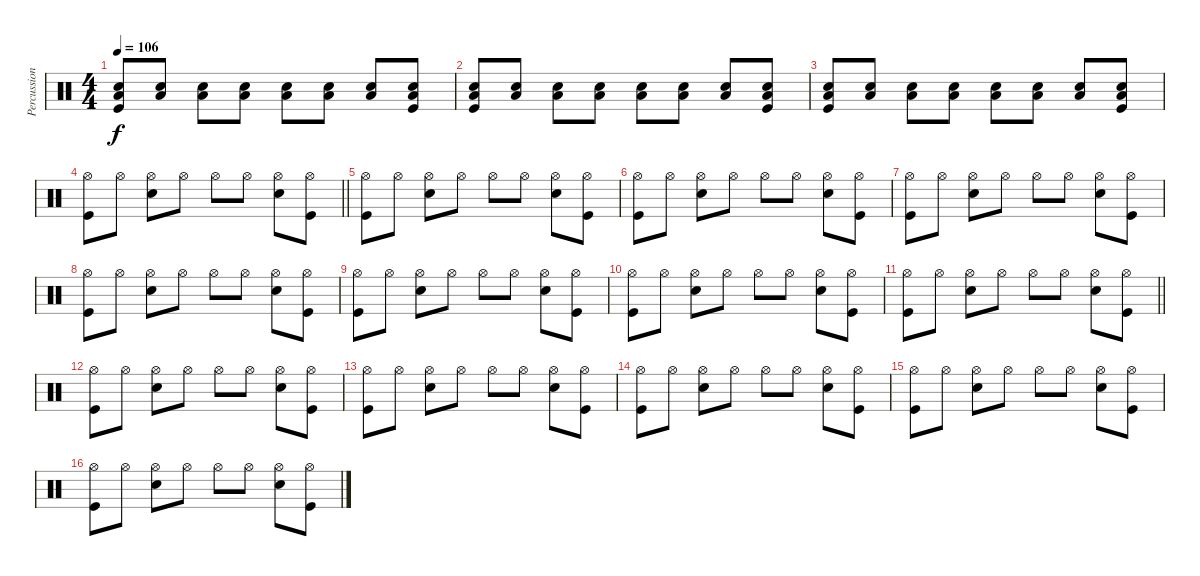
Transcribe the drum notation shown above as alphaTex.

\track ("Percussion" "Percussion") {instrument percussion}
\staff {score}
\articulation defaults
\ts (4 4)
\tempo 106
\clef neutral
\ks c
("Low Tom (hit)" "Snare (hit) 2" "Kick (hit)").8{dy f} ("Low Tom (hit)" "Snare (hit) 2").8 ("Low Tom (hit)" "Snare (hit) 2").8 ("Low Tom (hit)" "Snare (hit) 2").8 ("Low Tom (hit)" "Snare (hit) 2").8 ("Low Tom (hit)" "Snare (hit) 2").8 ("Low Tom (hit)" "Snare (hit) 2").8 ("Low Tom (hit)" "Snare (hit) 2" "Kick (hit)").8 |
("Low Tom (hit)" "Snare (hit) 2" "Kick (hit)").8 ("Low Tom (hit)" "Snare (hit) 2").8 ("Low Tom (hit)" "Snare (hit) 2").8 ("Low Tom (hit)" "Snare (hit) 2").8 ("Low Tom (hit)" "Snare (hit) 2").8 ("Low Tom (hit)" "Snare (hit) 2").8 ("Low Tom (hit)" "Snare (hit) 2").8 ("Low Tom (hit)" "Snare (hit) 2" "Kick (hit)").8 |
("Low Tom (hit)" "Snare (hit) 2" "Kick (hit)").8 ("Low Tom (hit)" "Snare (hit) 2").8 ("Low Tom (hit)" "Snare (hit) 2").8 ("Low Tom (hit)" "Snare (hit) 2").8 ("Low Tom (hit)" "Snare (hit) 2").8 ("Low Tom (hit)" "Snare (hit) 2").8 ("Low Tom (hit)" "Snare (hit) 2").8 ("Low Tom (hit)" "Snare (hit) 2" "Kick (hit)").8 |
\barLineRight lightlight
("Hi-Hat (open)" "Kick (hit)").8 "Hi-Hat (open)".8 ("Hi-Hat (open)" "Snare (hit) 2").8 "Hi-Hat (open)".8 "Hi-Hat (open)".8 "Hi-Hat (open)".8 ("Hi-Hat (open)" "Snare (hit) 2").8 ("Hi-Hat (open)" "Kick (hit)").8 |
("Hi-Hat (open)" "Kick (hit)").8 "Hi-Hat (open)".8 ("Hi-Hat (open)" "Snare (hit) 2").8 "Hi-Hat (open)".8 "Hi-Hat (open)".8 "Hi-Hat (open)".8 ("Hi-Hat (open)" "Snare (hit) 2").8 ("Hi-Hat (open)" "Kick (hit)").8 |
("Hi-Hat (open)" "Kick (hit)").8 "Hi-Hat (open)".8 ("Hi-Hat (open)" "Snare (hit) 2").8 "Hi-Hat (open)".8 "Hi-Hat (open)".8 "Hi-Hat (open)".8 ("Hi-Hat (open)" "Snare (hit) 2").8 ("Hi-Hat (open)" "Kick (hit)").8 |
("Hi-Hat (open)" "Kick (hit)").8 "Hi-Hat (open)".8 ("Hi-Hat (open)" "Snare (hit) 2").8 "Hi-Hat (open)".8 "Hi-Hat (open)".8 "Hi-Hat (open)".8 ("Hi-Hat (open)" "Snare (hit) 2").8 ("Hi-Hat (open)" "Kick (hit)").8 |
("Hi-Hat (open)" "Kick (hit)").8 "Hi-Hat (open)".8 ("Hi-Hat (open)" "Snare (hit) 2").8 "Hi-Hat (open)".8 "Hi-Hat (open)".8 "Hi-Hat (open)".8 ("Hi-Hat (open)" "Snare (hit) 2").8 ("Hi-Hat (open)" "Kick (hit)").8 |
("Hi-Hat (open)" "Kick (hit)").8 "Hi-Hat (open)".8 ("Hi-Hat (open)" "Snare (hit) 2").8 "Hi-Hat (open)".8 "Hi-Hat (open)".8 "Hi-Hat (open)".8 ("Hi-Hat (open)" "Snare (hit) 2").8 ("Hi-Hat (open)" "Kick (hit)").8 |
("Hi-Hat (open)" "Kick (hit)").8 "Hi-Hat (open)".8 ("Hi-Hat (open)" "Snare (hit) 2").8 "Hi-Hat (open)".8 "Hi-Hat (open)".8 "Hi-Hat (open)".8 ("Hi-Hat (open)" "Snare (hit) 2").8 ("Hi-Hat (open)" "Kick (hit)").8 |
\barLineRight lightlight
("Hi-Hat (open)" "Kick (hit)").8 "Hi-Hat (open)".8 ("Hi-Hat (open)" "Snare (hit) 2").8 "Hi-Hat (open)".8 "Hi-Hat (open)".8 "Hi-Hat (open)".8 ("Hi-Hat (open)" "Snare (hit) 2").8 ("Hi-Hat (open)" "Kick (hit)").8 |
("Hi-Hat (open)" "Kick (hit)").8 "Hi-Hat (open)".8 ("Hi-Hat (open)" "Snare (hit) 2").8 "Hi-Hat (open)".8 "Hi-Hat (open)".8 "Hi-Hat (open)".8 ("Hi-Hat (open)" "Snare (hit) 2").8 ("Hi-Hat (open)" "Kick (hit)").8 |
("Hi-Hat (open)" "Kick (hit)").8 "Hi-Hat (open)".8 ("Hi-Hat (open)" "Snare (hit) 2").8 "Hi-Hat (open)".8 "Hi-Hat (open)".8 "Hi-Hat (open)".8 ("Hi-Hat (open)" "Snare (hit) 2").8 ("Hi-Hat (open)" "Kick (hit)").8 |
("Hi-Hat (open)" "Kick (hit)").8 "Hi-Hat (open)".8 ("Hi-Hat (open)" "Snare (hit) 2").8 "Hi-Hat (open)".8 "Hi-Hat (open)".8 "Hi-Hat (open)".8 ("Hi-Hat (open)" "Snare (hit) 2").8 ("Hi-Hat (open)" "Kick (hit)").8 |
("Hi-Hat (open)" "Kick (hit)").8 "Hi-Hat (open)".8 ("Hi-Hat (open)" "Snare (hit) 2").8 "Hi-Hat (open)".8 "Hi-Hat (open)".8 "Hi-Hat (open)".8 ("Hi-Hat (open)" "Snare (hit) 2").8 ("Hi-Hat (open)" "Kick (hit)").8 |
("Hi-Hat (open)" "Kick (hit)").8 "Hi-Hat (open)".8 ("Hi-Hat (open)" "Snare (hit) 2").8 "Hi-Hat (open)".8 "Hi-Hat (open)".8 "Hi-Hat (open)".8 ("Hi-Hat (open)" "Snare (hit) 2").8 ("Hi-Hat (open)" "Kick (hit)").8
